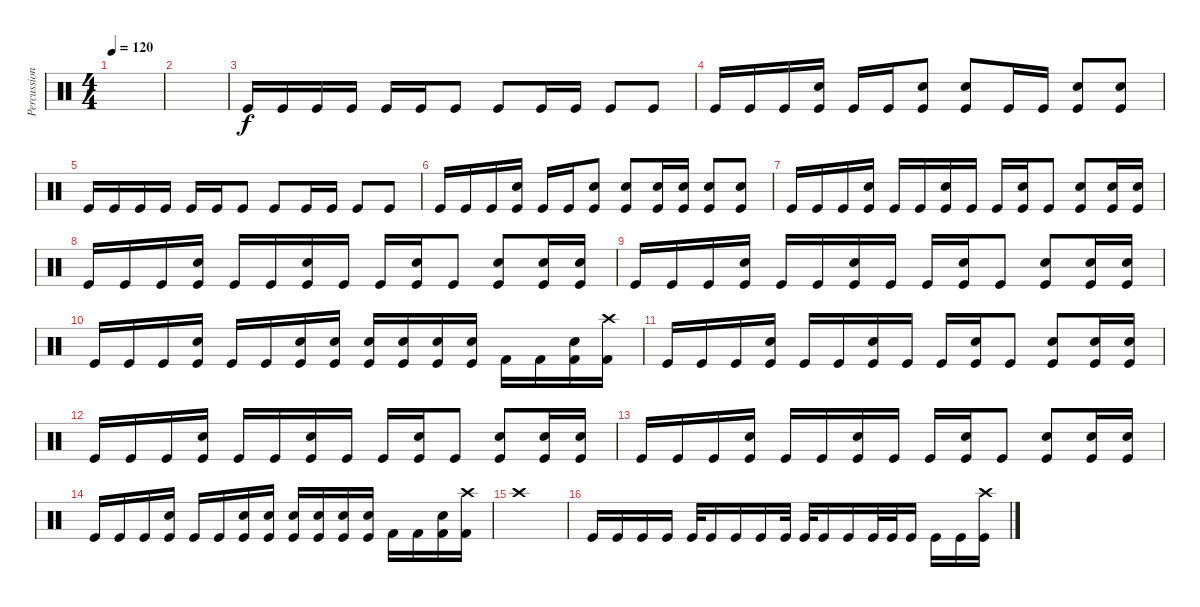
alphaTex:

\track ("Percussion" "Percussion") {instrument percussion}
\staff {score}
\articulation defaults
\ts (4 4)
\tempo 120
\clef neutral
\ks c
|
|
"Kick (hit)".16 "Kick (hit)".16 "Kick (hit)".16 "Kick (hit)".16 "Kick (hit)".16 "Kick (hit)".16 "Kick (hit)".8 "Kick (hit)".8 "Kick (hit)".16 "Kick (hit)".16 "Kick (hit)".8 "Kick (hit)".8 |
"Kick (hit)".16 "Kick (hit)".16 "Kick (hit)".16 ("Snare (hit) 2" "Kick (hit)").16 "Kick (hit)".16 "Kick (hit)".16 ("Snare (hit) 2" "Kick (hit)").8 ("Snare (hit) 2" "Kick (hit)").8 "Kick (hit)".16 "Kick (hit)".16 ("Snare (hit) 2" "Kick (hit)").8 ("Snare (hit) 2" "Kick (hit)").8 |
"Kick (hit)".16 "Kick (hit)".16 "Kick (hit)".16 "Kick (hit)".16 "Kick (hit)".16 "Kick (hit)".16 "Kick (hit)".8 "Kick (hit)".8 "Kick (hit)".16 "Kick (hit)".16 "Kick (hit)".8 "Kick (hit)".8 |
"Kick (hit)".16 "Kick (hit)".16 "Kick (hit)".16 ("Snare (hit) 2" "Kick (hit)").16 "Kick (hit)".16 "Kick (hit)".16 ("Snare (hit) 2" "Kick (hit)").8 ("Snare (hit) 2" "Kick (hit)").8 ("Snare (hit) 2" "Kick (hit)").16 ("Snare (hit) 2" "Kick (hit)").16 ("Snare (hit) 2" "Kick (hit)").8 ("Snare (hit) 2" "Kick (hit)").8 |
"Kick (hit)".16 "Kick (hit)".16 "Kick (hit)".16 ("Snare (hit) 2" "Kick (hit)").16 "Kick (hit)".16 "Kick (hit)".16 ("Snare (hit) 2" "Kick (hit)").16 "Kick (hit)".16 "Kick (hit)".16 ("Snare (hit) 2" "Kick (hit)").16 "Kick (hit)".8 ("Snare (hit) 2" "Kick (hit)").8 ("Snare (hit) 2" "Kick (hit)").16 ("Snare (hit) 2" "Kick (hit)").16 |
"Kick (hit)".16 "Kick (hit)".16 "Kick (hit)".16 ("Snare (hit) 2" "Kick (hit)").16 "Kick (hit)".16 "Kick (hit)".16 ("Snare (hit) 2" "Kick (hit)").16 "Kick (hit)".16 "Kick (hit)".16 ("Snare (hit) 2" "Kick (hit)").16 "Kick (hit)".8 ("Snare (hit) 2" "Kick (hit)").8 ("Snare (hit) 2" "Kick (hit)").16 ("Snare (hit) 2" "Kick (hit)").16 |
"Kick (hit)".16 "Kick (hit)".16 "Kick (hit)".16 ("Snare (hit) 2" "Kick (hit)").16 "Kick (hit)".16 "Kick (hit)".16 ("Snare (hit) 2" "Kick (hit)").16 "Kick (hit)".16 "Kick (hit)".16 ("Snare (hit) 2" "Kick (hit)").16 "Kick (hit)".8 ("Snare (hit) 2" "Kick (hit)").8 ("Snare (hit) 2" "Kick (hit)").16 ("Snare (hit) 2" "Kick (hit)").16 |
"Kick (hit)".16 "Kick (hit)".16 "Kick (hit)".16 ("Snare (hit) 2" "Kick (hit)").16 "Kick (hit)".16 "Kick (hit)".16 ("Snare (hit) 2" "Kick (hit)").16 ("Snare (hit) 2" "Kick (hit)").16 ("Snare (hit) 2" "Kick (hit)").16 ("Snare (hit) 2" "Kick (hit)").16 ("Snare (hit) 2" "Kick (hit)").16 ("Snare (hit) 2" "Kick (hit)").16 "Kick (hit) 2".16 "Kick (hit) 2".16 ("Kick (hit) 2" "Snare (hit) 2").16 ("Kick (hit) 2" "Crash high (hit)").16 |
"Kick (hit)".16 "Kick (hit)".16 "Kick (hit)".16 ("Snare (hit) 2" "Kick (hit)").16 "Kick (hit)".16 "Kick (hit)".16 ("Snare (hit) 2" "Kick (hit)").16 "Kick (hit)".16 "Kick (hit)".16 ("Snare (hit) 2" "Kick (hit)").16 "Kick (hit)".8 ("Snare (hit) 2" "Kick (hit)").8 ("Snare (hit) 2" "Kick (hit)").16 ("Snare (hit) 2" "Kick (hit)").16 |
"Kick (hit)".16 "Kick (hit)".16 "Kick (hit)".16 ("Snare (hit) 2" "Kick (hit)").16 "Kick (hit)".16 "Kick (hit)".16 ("Snare (hit) 2" "Kick (hit)").16 "Kick (hit)".16 "Kick (hit)".16 ("Snare (hit) 2" "Kick (hit)").16 "Kick (hit)".8 ("Snare (hit) 2" "Kick (hit)").8 ("Snare (hit) 2" "Kick (hit)").16 ("Snare (hit) 2" "Kick (hit)").16 |
"Kick (hit)".16 "Kick (hit)".16 "Kick (hit)".16 ("Snare (hit) 2" "Kick (hit)").16 "Kick (hit)".16 "Kick (hit)".16 ("Snare (hit) 2" "Kick (hit)").16 "Kick (hit)".16 "Kick (hit)".16 ("Snare (hit) 2" "Kick (hit)").16 "Kick (hit)".8 ("Snare (hit) 2" "Kick (hit)").8 ("Snare (hit) 2" "Kick (hit)").16 ("Snare (hit) 2" "Kick (hit)").16 |
"Kick (hit)".16 "Kick (hit)".16 "Kick (hit)".16 ("Snare (hit) 2" "Kick (hit)").16 "Kick (hit)".16 "Kick (hit)".16 ("Snare (hit) 2" "Kick (hit)").16 ("Snare (hit) 2" "Kick (hit)").16 ("Snare (hit) 2" "Kick (hit)").16 ("Snare (hit) 2" "Kick (hit)").16 ("Snare (hit) 2" "Kick (hit)").16 ("Snare (hit) 2" "Kick (hit)").16 "Kick (hit) 2".16 "Kick (hit) 2".16 ("Kick (hit) 2" "Snare (hit) 2").16 ("Kick (hit) 2" "Crash high (hit)").16 |
"Crash high (hit)".1 |
"Kick (hit)".16 "Kick (hit)".16 "Kick (hit)".16 "Kick (hit)".16 "Kick (hit)".32 "Kick (hit)".16 "Kick (hit)".16 "Kick (hit)".16 "Kick (hit)".32 "Kick (hit)".32 "Kick (hit)".16 "Kick (hit)".16 "Kick (hit)".32 "Kick (hit)".32 "Kick (hit)".16 "Kick (hit)".16 "Kick (hit)".16 ("Kick (hit)" "Crash high (hit)").16
